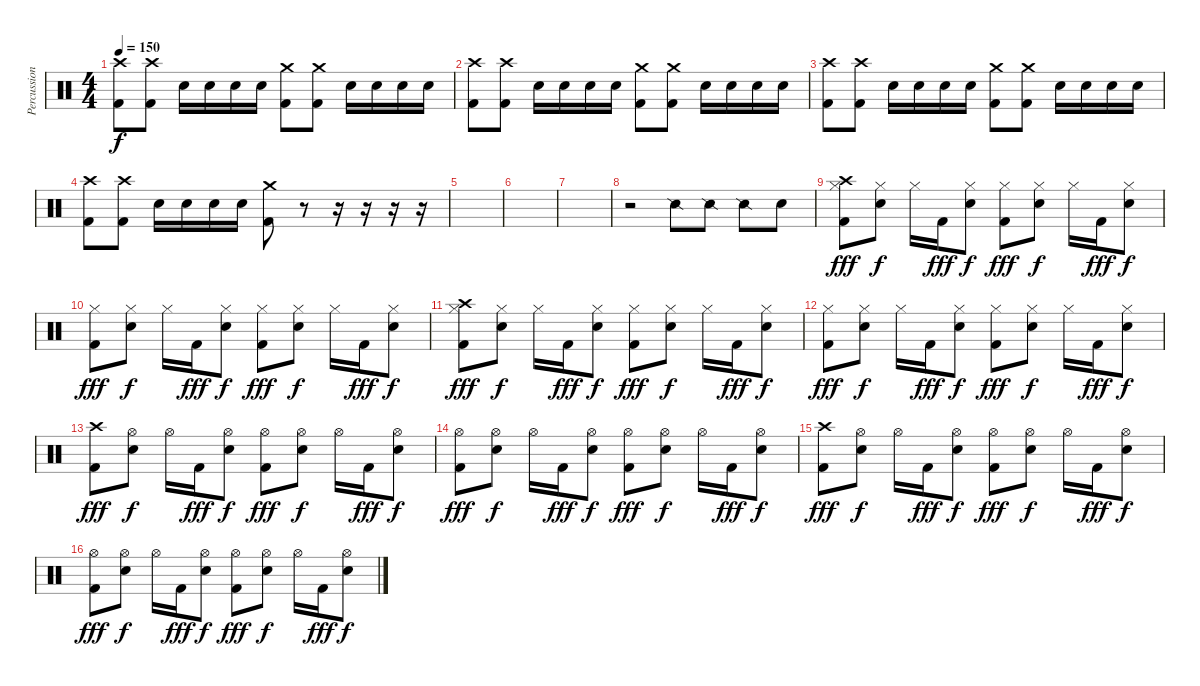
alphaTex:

\track ("Percussions" "Percussion") {instrument percussion}
\staff {score}
\articulation defaults
\ts (4 4)
\tempo 150
\clef neutral
\ks c
("Crash high (hit)" "Kick (hit) 2").8{dy f} ("Crash high (hit)" "Kick (hit) 2").8 "Electric Snare (hit)".16 "Electric Snare (hit)".16 "Electric Snare (hit)".16 "Electric Snare (hit)".16 ("Crash medium (hit)" "Kick (hit) 2").8 ("Crash medium (hit)" "Kick (hit) 2").8 "Electric Snare (hit)".16 "Electric Snare (hit)".16 "Electric Snare (hit)".16 "Electric Snare (hit)".16 |
("Crash high (hit)" "Kick (hit) 2").8 ("Crash high (hit)" "Kick (hit) 2").8 "Electric Snare (hit)".16 "Electric Snare (hit)".16 "Electric Snare (hit)".16 "Electric Snare (hit)".16 ("Crash medium (hit)" "Kick (hit) 2").8 ("Crash medium (hit)" "Kick (hit) 2").8 "Electric Snare (hit)".16 "Electric Snare (hit)".16 "Electric Snare (hit)".16 "Electric Snare (hit)".16 |
("Crash high (hit)" "Kick (hit) 2").8 ("Crash high (hit)" "Kick (hit) 2").8 "Electric Snare (hit)".16 "Electric Snare (hit)".16 "Electric Snare (hit)".16 "Electric Snare (hit)".16 ("Crash medium (hit)" "Kick (hit) 2").8 ("Crash medium (hit)" "Kick (hit) 2").8 "Electric Snare (hit)".16 "Electric Snare (hit)".16 "Electric Snare (hit)".16 "Electric Snare (hit)".16 |
("Crash high (hit)" "Kick (hit) 2").8 ("Crash high (hit)" "Kick (hit) 2").8 "Electric Snare (hit)".16 "Electric Snare (hit)".16 "Electric Snare (hit)".16 "Electric Snare (hit)".16 ("Crash medium (hit)" "Kick (hit) 2").8 r.8 r.16 r.16 r.16 r.16 |
|
|
|
r.2 "Snare (side stick) 2".8 "Snare (side stick) 2".8 "Snare (side stick) 2".8 "Electric Snare (hit)".8 |
("Crash high (hit)" "Hi-Hat (closed)" "Kick (hit) 2").8{dy fff} ("Hi-Hat (closed)" "Snare (hit) 2").8{dy f} "Hi-Hat (closed)".16 "Kick (hit) 2".16{dy fff} ("Hi-Hat (closed)" "Snare (hit) 2").8{dy f} ("Hi-Hat (closed)" "Kick (hit) 2").8{dy fff} ("Hi-Hat (closed)" "Snare (hit) 2").8{dy f} "Hi-Hat (closed)".16 "Kick (hit) 2".16{dy fff} ("Hi-Hat (closed)" "Snare (hit) 2").8{dy f} |
("Hi-Hat (closed)" "Kick (hit) 2").8{dy fff} ("Hi-Hat (closed)" "Snare (hit) 2").8{dy f} "Hi-Hat (closed)".16 "Kick (hit) 2".16{dy fff} ("Hi-Hat (closed)" "Snare (hit) 2").8{dy f} ("Hi-Hat (closed)" "Kick (hit) 2").8{dy fff} ("Hi-Hat (closed)" "Snare (hit) 2").8{dy f} "Hi-Hat (closed)".16 "Kick (hit) 2".16{dy fff} ("Hi-Hat (closed)" "Snare (hit) 2").8{dy f} |
("Crash high (hit)" "Hi-Hat (closed)" "Kick (hit) 2").8{dy fff} ("Hi-Hat (closed)" "Snare (hit) 2").8{dy f} "Hi-Hat (closed)".16 "Kick (hit) 2".16{dy fff} ("Hi-Hat (closed)" "Snare (hit) 2").8{dy f} ("Hi-Hat (closed)" "Kick (hit) 2").8{dy fff} ("Hi-Hat (closed)" "Snare (hit) 2").8{dy f} "Hi-Hat (closed)".16 "Kick (hit) 2".16{dy fff} ("Hi-Hat (closed)" "Snare (hit) 2").8{dy f} |
("Hi-Hat (closed)" "Kick (hit) 2").8{dy fff} ("Hi-Hat (closed)" "Snare (hit) 2").8{dy f} "Hi-Hat (closed)".16 "Kick (hit) 2".16{dy fff} ("Hi-Hat (closed)" "Snare (hit) 2").8{dy f} ("Hi-Hat (closed)" "Kick (hit) 2").8{dy fff} ("Hi-Hat (closed)" "Snare (hit) 2").8{dy f} "Hi-Hat (closed)".16 "Kick (hit) 2".16{dy fff} ("Hi-Hat (closed)" "Snare (hit) 2").8{dy f} |
("Crash high (hit)" "Kick (hit) 2").8{dy fff} ("Hi-Hat (open)" "Snare (hit) 2").8{dy f} "Hi-Hat (open)".16 "Kick (hit) 2".16{dy fff} ("Hi-Hat (open)" "Snare (hit) 2").8{dy f} ("Hi-Hat (open)" "Kick (hit) 2").8{dy fff} ("Hi-Hat (open)" "Snare (hit) 2").8{dy f} "Hi-Hat (open)".16 "Kick (hit) 2".16{dy fff} ("Hi-Hat (open)" "Snare (hit) 2").8{dy f} |
("Hi-Hat (open)" "Kick (hit) 2").8{dy fff} ("Hi-Hat (open)" "Snare (hit) 2").8{dy f} "Hi-Hat (open)".16 "Kick (hit) 2".16{dy fff} ("Hi-Hat (open)" "Snare (hit) 2").8{dy f} ("Hi-Hat (open)" "Kick (hit) 2").8{dy fff} ("Hi-Hat (open)" "Snare (hit) 2").8{dy f} "Hi-Hat (open)".16 "Kick (hit) 2".16{dy fff} ("Hi-Hat (open)" "Snare (hit) 2").8{dy f} |
("Crash high (hit)" "Kick (hit) 2").8{dy fff} ("Hi-Hat (open)" "Snare (hit) 2").8{dy f} "Hi-Hat (open)".16 "Kick (hit) 2".16{dy fff} ("Hi-Hat (open)" "Snare (hit) 2").8{dy f} ("Hi-Hat (open)" "Kick (hit) 2").8{dy fff} ("Hi-Hat (open)" "Snare (hit) 2").8{dy f} "Hi-Hat (open)".16 "Kick (hit) 2".16{dy fff} ("Hi-Hat (open)" "Snare (hit) 2").8{dy f} |
("Hi-Hat (open)" "Kick (hit) 2").8{dy fff} ("Hi-Hat (open)" "Snare (hit) 2").8{dy f} "Hi-Hat (open)".16 "Kick (hit) 2".16{dy fff} ("Hi-Hat (open)" "Snare (hit) 2").8{dy f} ("Hi-Hat (open)" "Kick (hit) 2").8{dy fff} ("Hi-Hat (open)" "Snare (hit) 2").8{dy f} "Hi-Hat (open)".16 "Kick (hit) 2".16{dy fff} ("Hi-Hat (open)" "Snare (hit) 2").8{dy f}
